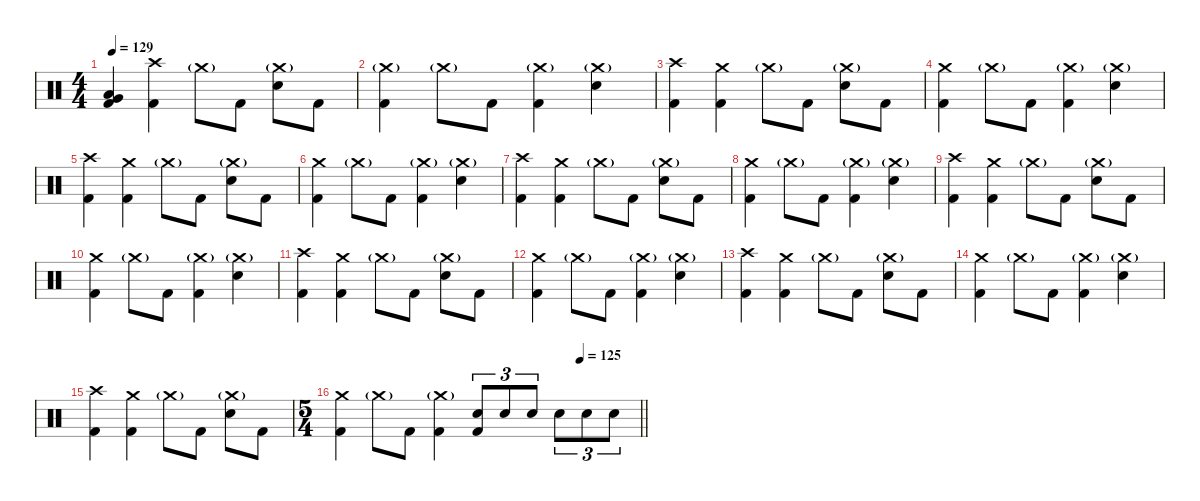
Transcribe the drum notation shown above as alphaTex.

\defaultSystemsLayout 4
\hideDynamics
\bracketExtendMode nobrackets
\singleTrackTrackNamePolicy hidden
\multiTrackTrackNamePolicy hidden
\otherSystemsTrackNameOrientation horizontal
\track ("Gene Hoglan" "drm.") {instrument percussion}
\staff {score}
\articulation defaults
\ts (4 4)
\tempo 129
\clef neutral
\ks c
("Very Low Tom (hit)" "Low Floor Tom (hit)" "Kick (hit) 2").4{dy f beam Up} ("Crash high (hit)" "Kick (hit) 2").4{beam Down} "Crash medium (hit)"{g}.8{dy mf beam Down} "Kick (hit) 2".8{dy f beam Down} ("Crash medium (hit)"{g} "Snare (hit) 2").8{beam Down} "Kick (hit) 2".8{beam Down} |
("Crash medium (hit)"{g} "Kick (hit) 2").4{beam Down} "Crash medium (hit)"{g}.8{dy mf beam Down} "Kick (hit) 2".8{dy f beam Down} ("Crash medium (hit)"{g} "Kick (hit) 2").4{beam Down} ("Crash medium (hit)"{g} "Snare (hit) 2").4{beam Down} |
("Crash high (hit)" "Kick (hit) 2").4{beam Down} ("Crash medium (hit)" "Kick (hit) 2").4{beam Down} "Crash medium (hit)"{g}.8{dy mf beam Down} "Kick (hit) 2".8{dy f beam Down} ("Crash medium (hit)"{g} "Snare (hit) 2").8{beam Down} "Kick (hit) 2".8{beam Down} |
("Crash medium (hit)" "Kick (hit) 2").4{beam Down} "Crash medium (hit)"{g}.8{dy mf beam Down} "Kick (hit) 2".8{dy f beam Down} ("Crash medium (hit)"{g} "Kick (hit) 2").4{beam Down} ("Crash medium (hit)"{g} "Snare (hit) 2").4{beam Down} |
("Crash high (hit)" "Kick (hit) 2").4{beam Down} ("Crash medium (hit)" "Kick (hit) 2").4{beam Down} "Crash medium (hit)"{g}.8{dy mf beam Down} "Kick (hit) 2".8{dy f beam Down} ("Crash medium (hit)"{g} "Snare (hit) 2").8{beam Down} "Kick (hit) 2".8{beam Down} |
("Crash medium (hit)" "Kick (hit) 2").4{beam Down} "Crash medium (hit)"{g}.8{dy mf beam Down} "Kick (hit) 2".8{dy f beam Down} ("Crash medium (hit)"{g} "Kick (hit) 2").4{beam Down} ("Crash medium (hit)"{g} "Snare (hit) 2").4{beam Down} |
("Crash high (hit)" "Kick (hit) 2").4{beam Down} ("Crash medium (hit)" "Kick (hit) 2").4{beam Down} "Crash medium (hit)"{g}.8{dy mf beam Down} "Kick (hit) 2".8{dy f beam Down} ("Crash medium (hit)"{g} "Snare (hit) 2").8{beam Down} "Kick (hit) 2".8{beam Down} |
("Crash medium (hit)" "Kick (hit) 2").4{beam Down} "Crash medium (hit)"{g}.8{dy mf beam Down} "Kick (hit) 2".8{dy f beam Down} ("Crash medium (hit)"{g} "Kick (hit) 2").4{beam Down} ("Crash medium (hit)"{g} "Snare (hit) 2").4{beam Down} |
("Crash high (hit)" "Kick (hit) 2").4{beam Down} ("Crash medium (hit)" "Kick (hit) 2").4{beam Down} "Crash medium (hit)"{g}.8{dy mf beam Down} "Kick (hit) 2".8{dy f beam Down} ("Crash medium (hit)"{g} "Snare (hit) 2").8{beam Down} "Kick (hit) 2".8{beam Down} |
("Crash medium (hit)" "Kick (hit) 2").4{beam Down} "Crash medium (hit)"{g}.8{dy mf beam Down} "Kick (hit) 2".8{dy f beam Down} ("Crash medium (hit)"{g} "Kick (hit) 2").4{beam Down} ("Crash medium (hit)"{g} "Snare (hit) 2").4{beam Down} |
("Crash high (hit)" "Kick (hit) 2").4{beam Down} ("Crash medium (hit)" "Kick (hit) 2").4{beam Down} "Crash medium (hit)"{g}.8{dy mf beam Down} "Kick (hit) 2".8{dy f beam Down} ("Crash medium (hit)"{g} "Snare (hit) 2").8{beam Down} "Kick (hit) 2".8{beam Down} |
("Crash medium (hit)" "Kick (hit) 2").4{beam Down} "Crash medium (hit)"{g}.8{dy mf beam Down} "Kick (hit) 2".8{dy f beam Down} ("Crash medium (hit)"{g} "Kick (hit) 2").4{beam Down} ("Crash medium (hit)"{g} "Snare (hit) 2").4{beam Down} |
("Crash high (hit)" "Kick (hit) 2").4{beam Down} ("Crash medium (hit)" "Kick (hit) 2").4{beam Down} "Crash medium (hit)"{g}.8{dy mf beam Down} "Kick (hit) 2".8{dy f beam Down} ("Crash medium (hit)"{g} "Snare (hit) 2").8{beam Down} "Kick (hit) 2".8{beam Down} |
("Crash medium (hit)" "Kick (hit) 2").4{beam Down} "Crash medium (hit)"{g}.8{dy mf beam Down} "Kick (hit) 2".8{dy f beam Down} ("Crash medium (hit)"{g} "Kick (hit) 2").4{beam Down} ("Crash medium (hit)"{g} "Snare (hit) 2").4{beam Down} |
("Crash high (hit)" "Kick (hit) 2").4{beam Down} ("Crash medium (hit)" "Kick (hit) 2").4{beam Down} "Crash medium (hit)"{g}.8{dy mf beam Down} "Kick (hit) 2".8{dy f beam Down} ("Crash medium (hit)"{g} "Snare (hit) 2").8{beam Down} "Kick (hit) 2".8{beam Down} |
\ts (5 4)
\beaming (8 6 4)
\tempo (125 0.8)
\barLineRight lightlight
("Crash medium (hit)" "Kick (hit) 2").4{beam Down} "Crash medium (hit)"{g}.8{dy mf beam Down} "Kick (hit) 2".8{dy f beam Down} ("Crash medium (hit)"{g} "Kick (hit) 2").4{beam Down} ("Snare (hit) 2" "Kick (hit) 2").8{tu (3 2) beam Up} "Snare (hit) 2".8{tu (3 2) beam Up} "Snare (hit) 2".8{tu (3 2) beam Up} "Snare (hit) 2".8{tu (3 2) beam Down} "Snare (hit) 2".8{tu (3 2) beam Down} "Snare (hit) 2".8{tu (3 2) beam Down}
